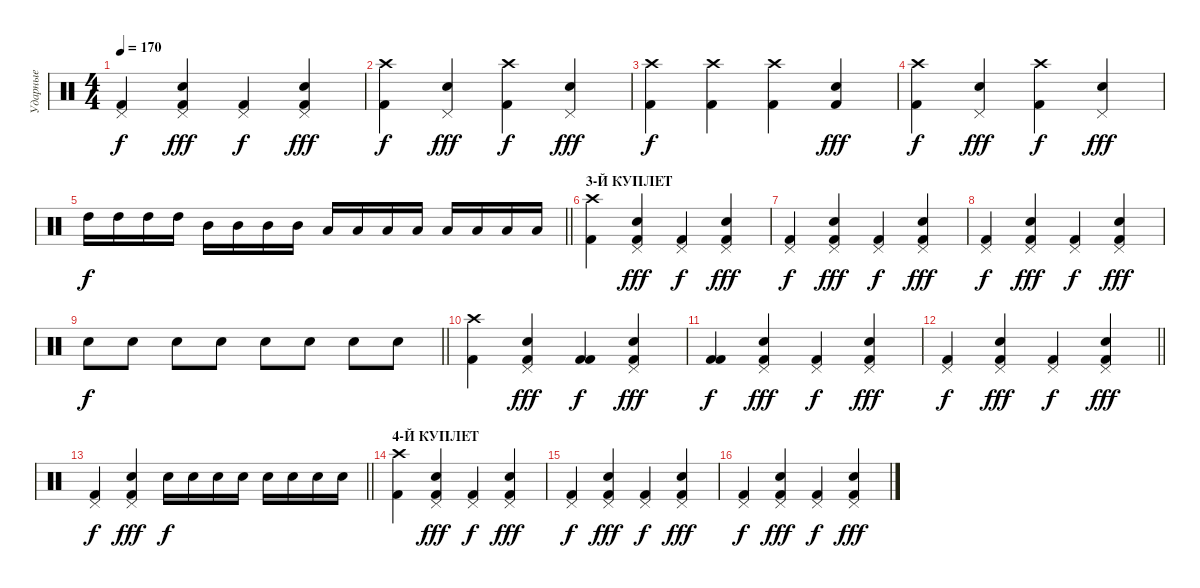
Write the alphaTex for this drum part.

\track ("Ударные" "Ударные") {instrument percussion}
\staff {score}
\articulation defaults
\ts (4 4)
\tempo 170
\clef neutral
\ks c
("Pedal Hi-Hat (hit)" "Kick (hit) 2").4{dy f} ("Pedal Hi-Hat (hit)" "Snare (hit) 2" "Kick (hit) 2").4{dy fff} ("Pedal Hi-Hat (hit)" "Kick (hit) 2").4{dy f} ("Pedal Hi-Hat (hit)" "Snare (hit) 2" "Kick (hit) 2").4{dy fff} |
("Crash high (hit)" "Kick (hit) 2").4{dy f} ("Pedal Hi-Hat (hit)" "Snare (hit) 2").4{dy fff} ("Crash high (hit)" "Kick (hit) 2").4{dy f} ("Pedal Hi-Hat (hit)" "Snare (hit) 2").4{dy fff} |
("Crash high (hit)" "Kick (hit) 2").4{dy f} ("Crash high (hit)" "Kick (hit) 2").4 ("Crash high (hit)" "Kick (hit) 2").4 ("Snare (hit) 2" "Kick (hit) 2").4{dy fff} |
("Crash high (hit)" "Kick (hit) 2").4{dy f} ("Pedal Hi-Hat (hit)" "Snare (hit) 2").4{dy fff} ("Crash high (hit)" "Kick (hit) 2").4{dy f} ("Pedal Hi-Hat (hit)" "Snare (hit) 2").4{dy fff} |
\barLineRight lightlight "High Tom (hit)".16{dy f} "High Tom (hit)".16 "High Tom (hit)".16 "High Tom (hit)".16 "Mid Tom (hit)".16 "Mid Tom (hit)".16 "Mid Tom (hit)".16 "Mid Tom (hit)".16 "Low Tom (hit)".16 "Low Tom (hit)".16 "Low Tom (hit)".16 "Low Tom (hit)".16 "Low Floor Tom (hit)".16 "Low Floor Tom (hit)".16 "Low Floor Tom (hit)".16 "Low Floor Tom (hit)".16
|
\section ("" "3-Й КУПЛЕТ")
("Crash high (hit)" "Kick (hit) 2").4 ("Pedal Hi-Hat (hit)" "Snare (hit) 2" "Kick (hit) 2").4{dy fff} ("Pedal Hi-Hat (hit)" "Kick (hit) 2").4{dy f} ("Pedal Hi-Hat (hit)" "Snare (hit) 2" "Kick (hit) 2").4{dy fff} |
("Pedal Hi-Hat (hit)" "Kick (hit) 2").4{dy f} ("Pedal Hi-Hat (hit)" "Snare (hit) 2" "Kick (hit) 2").4{dy fff} ("Pedal Hi-Hat (hit)" "Kick (hit) 2").4{dy f} ("Pedal Hi-Hat (hit)" "Snare (hit) 2" "Kick (hit) 2").4{dy fff} |
("Pedal Hi-Hat (hit)" "Kick (hit) 2").4{dy f} ("Pedal Hi-Hat (hit)" "Snare (hit) 2" "Kick (hit) 2").4{dy fff} ("Pedal Hi-Hat (hit)" "Kick (hit) 2").4{dy f} ("Pedal Hi-Hat (hit)" "Snare (hit) 2" "Kick (hit) 2").4{dy fff} |
\barLineRight lightlight "Snare (hit) 2".8{dy f} "Snare (hit) 2".8 "Snare (hit) 2".8 "Snare (hit) 2".8 "Electric Snare (hit)".8 "Electric Snare (hit)".8 "Electric Snare (hit)".8 "Electric Snare (hit)".8
|
("Crash high (hit)" "Kick (hit) 2").4 ("Pedal Hi-Hat (hit)" "Snare (hit) 2" "Kick (hit) 2").4{dy fff} ("Kick (hit) 2" "Kick (hit) 2").4{dy f} ("Pedal Hi-Hat (hit)" "Snare (hit) 2" "Kick (hit) 2").4{dy fff} |
("Kick (hit) 2" "Kick (hit) 2").4{dy f} ("Pedal Hi-Hat (hit)" "Snare (hit) 2" "Kick (hit) 2").4{dy fff} ("Pedal Hi-Hat (hit)" "Kick (hit) 2").4{dy f} ("Pedal Hi-Hat (hit)" "Snare (hit) 2" "Kick (hit) 2").4{dy fff} |
\barLineRight lightlight
("Pedal Hi-Hat (hit)" "Kick (hit) 2").4{dy f} ("Pedal Hi-Hat (hit)" "Snare (hit) 2" "Kick (hit) 2").4{dy fff} ("Pedal Hi-Hat (hit)" "Kick (hit) 2").4{dy f} ("Pedal Hi-Hat (hit)" "Snare (hit) 2" "Kick (hit) 2").4{dy fff} |
\barLineRight lightlight
("Pedal Hi-Hat (hit)" "Kick (hit) 2").4{dy f} ("Pedal Hi-Hat (hit)" "Snare (hit) 2" "Kick (hit) 2").4{dy fff} "Snare (hit) 2".16{dy f} "Snare (hit) 2".16 "Snare (hit) 2".16 "Snare (hit) 2".16 "Electric Snare (hit)".16 "Electric Snare (hit)".16 "Electric Snare (hit)".16 "Electric Snare (hit)".16 |
\section ("" "4-Й КУПЛЕТ")
("Crash high (hit)" "Kick (hit) 2").4 ("Pedal Hi-Hat (hit)" "Snare (hit) 2" "Kick (hit) 2").4{dy fff} ("Pedal Hi-Hat (hit)" "Kick (hit) 2").4{dy f} ("Pedal Hi-Hat (hit)" "Snare (hit) 2" "Kick (hit) 2").4{dy fff} |
("Pedal Hi-Hat (hit)" "Kick (hit) 2").4{dy f} ("Pedal Hi-Hat (hit)" "Snare (hit) 2" "Kick (hit) 2").4{dy fff} ("Pedal Hi-Hat (hit)" "Kick (hit) 2").4{dy f} ("Pedal Hi-Hat (hit)" "Snare (hit) 2" "Kick (hit) 2").4{dy fff} |
("Pedal Hi-Hat (hit)" "Kick (hit) 2").4{dy f} ("Pedal Hi-Hat (hit)" "Snare (hit) 2" "Kick (hit) 2").4{dy fff} ("Pedal Hi-Hat (hit)" "Kick (hit) 2").4{dy f} ("Pedal Hi-Hat (hit)" "Snare (hit) 2" "Kick (hit) 2").4{dy fff}
